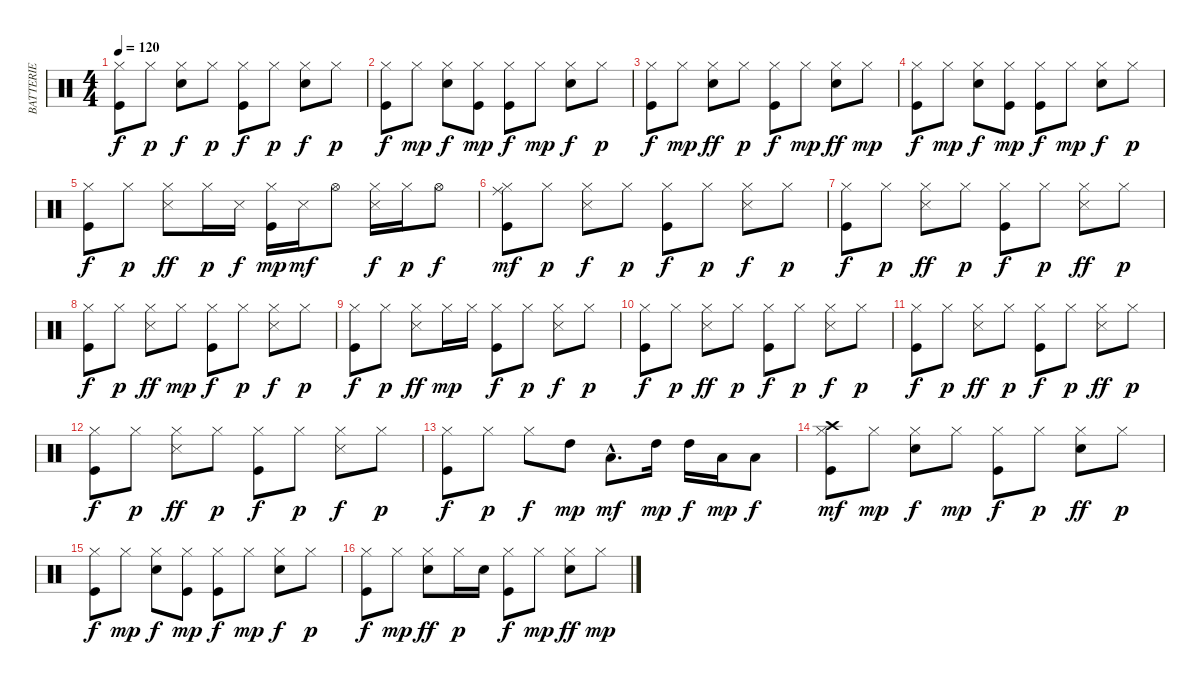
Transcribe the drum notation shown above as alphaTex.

\track ("BATTERIE" "BATTERIE") {instrument percussion}
\staff {score}
\articulation defaults
\ts (4 4)
\tempo 120
\clef neutral
\ks c
("Kick (hit)" "Hi-Hat (closed)").8{dy f} "Hi-Hat (closed)".8{dy p} ("Snare (hit) 2" "Hi-Hat (closed)").8{dy f} "Hi-Hat (closed)".8{dy p} ("Kick (hit)" "Hi-Hat (closed)").8{dy f} "Hi-Hat (closed)".8{dy p} ("Snare (hit) 2" "Hi-Hat (closed)").8{dy f} "Hi-Hat (closed)".8{dy p} |
("Kick (hit)" "Hi-Hat (closed)").8{dy f} "Hi-Hat (closed)".8{dy mp} ("Snare (hit) 2" "Hi-Hat (closed)").8{dy f} ("Kick (hit)" "Hi-Hat (closed)").8{dy mp} ("Kick (hit)" "Hi-Hat (closed)").8{dy f} "Hi-Hat (closed)".8{dy mp} ("Snare (hit) 2" "Hi-Hat (closed)").8{dy f} "Hi-Hat (closed)".8{dy p} |
("Kick (hit)" "Hi-Hat (closed)").8{dy f} "Hi-Hat (closed)".8{dy mp} ("Snare (hit) 2" "Hi-Hat (closed)").8{dy ff} "Hi-Hat (closed)".8{dy p} ("Kick (hit)" "Hi-Hat (closed)").8{dy f} "Hi-Hat (closed)".8{dy mp} ("Snare (hit) 2" "Hi-Hat (closed)").8{dy ff} "Hi-Hat (closed)".8{dy mp} |
("Kick (hit)" "Hi-Hat (closed)").8{dy f} "Hi-Hat (closed)".8{dy mp} ("Snare (hit) 2" "Hi-Hat (closed)").8{dy f} ("Kick (hit)" "Hi-Hat (closed)").8{dy mp} ("Kick (hit)" "Hi-Hat (closed)").8{dy f} "Hi-Hat (closed)".8{dy mp} ("Snare (hit) 2" "Hi-Hat (closed)").8{dy f} "Hi-Hat (closed)".8{dy p} |
("Kick (hit)" "Hi-Hat (closed)").8{dy f} "Hi-Hat (closed)".8{dy p} ("Hi-Hat (closed)" "Snare (side stick) 3").8{dy ff} "Hi-Hat (closed)".16{dy p} "Snare (side stick) 3".16{dy f} ("Kick (hit)" "Hi-Hat (closed)").16{dy mp} "Snare (side stick) 3".16{dy mf} "Hi-Hat (open)".8 ("Hi-Hat (closed)" "Snare (side stick) 3").16{dy f} "Hi-Hat (closed)".16{dy p} "Hi-Hat (open)".8{dy f} |
("Kick (hit)" "Hi-Hat (closed)" "Ride (middle)").8{dy mf} "Hi-Hat (closed)".8{dy p} ("Hi-Hat (closed)" "Snare (side stick) 3").8{dy f} "Hi-Hat (closed)".8{dy p} ("Kick (hit)" "Hi-Hat (closed)").8{dy f} "Hi-Hat (closed)".8{dy p} ("Hi-Hat (closed)" "Snare (side stick) 3").8{dy f} "Hi-Hat (closed)".8{dy p} |
("Kick (hit)" "Hi-Hat (closed)").8{dy f} "Hi-Hat (closed)".8{dy p} ("Hi-Hat (closed)" "Snare (side stick) 3").8{dy ff} "Hi-Hat (closed)".8{dy p} ("Kick (hit)" "Hi-Hat (closed)").8{dy f} "Hi-Hat (closed)".8{dy p} ("Hi-Hat (closed)" "Snare (side stick) 3").8{dy ff} "Hi-Hat (closed)".8{dy p} |
("Kick (hit)" "Hi-Hat (closed)").8{dy f} "Hi-Hat (closed)".8{dy p} ("Hi-Hat (closed)" "Snare (side stick) 3").8{dy ff} "Hi-Hat (closed)".8{dy mp} ("Kick (hit)" "Hi-Hat (closed)").8{dy f} "Hi-Hat (closed)".8{dy p} ("Hi-Hat (closed)" "Snare (side stick) 3").8{dy f} "Hi-Hat (closed)".8{dy p} |
("Kick (hit)" "Hi-Hat (closed)").8{dy f} "Hi-Hat (closed)".8{dy p} ("Hi-Hat (closed)" "Snare (side stick) 3").8{dy ff} "Hi-Hat (closed)".16{dy mp} "Hi-Hat (closed)".16 ("Kick (hit)" "Hi-Hat (closed)").8{dy f} "Hi-Hat (closed)".8{dy p} ("Hi-Hat (closed)" "Snare (side stick) 3").8{dy f} "Hi-Hat (closed)".8{dy p} |
("Kick (hit)" "Hi-Hat (closed)").8{dy f} "Hi-Hat (closed)".8{dy p} ("Hi-Hat (closed)" "Snare (side stick) 3").8{dy ff} "Hi-Hat (closed)".8{dy p} ("Kick (hit)" "Hi-Hat (closed)").8{dy f} "Hi-Hat (closed)".8{dy p} ("Hi-Hat (closed)" "Snare (side stick) 3").8{dy f} "Hi-Hat (closed)".8{dy p} |
("Kick (hit)" "Hi-Hat (closed)").8{dy f} "Hi-Hat (closed)".8{dy p} ("Hi-Hat (closed)" "Snare (side stick) 3").8{dy ff} "Hi-Hat (closed)".8{dy p} ("Kick (hit)" "Hi-Hat (closed)").8{dy f} "Hi-Hat (closed)".8{dy p} ("Hi-Hat (closed)" "Snare (side stick) 3").8{dy ff} "Hi-Hat (closed)".8{dy p} |
("Kick (hit)" "Hi-Hat (closed)").8{dy f} "Hi-Hat (closed)".8{dy p} ("Hi-Hat (closed)" "Snare (side stick) 3").8{dy ff} "Hi-Hat (closed)".8{dy p} ("Kick (hit)" "Hi-Hat (closed)").8{dy f} "Hi-Hat (closed)".8{dy p} ("Hi-Hat (closed)" "Snare (side stick) 3").8{dy f} "Hi-Hat (closed)".8{dy p} |
("Kick (hit)" "Hi-Hat (closed)").8{dy f} "Hi-Hat (closed)".8{dy p} "Hi-Hat (closed)".8{dy f} "High Tom (hit)".8{dy mp} "Low Tom (hit)"{hac}.8{d dy mf} "High Tom (hit)".16{dy mp} "High Tom (hit)".16{dy f} "Low Tom (hit)".16{dy mp} "Low Tom (hit)".8{dy f} |
("Kick (hit)" "Hi-Hat (closed)" "Crash high (hit)").8{dy mf} "Hi-Hat (closed)".8{dy mp} ("Snare (hit) 2" "Hi-Hat (closed)").8{dy f} "Hi-Hat (closed)".8{dy mp} ("Kick (hit)" "Hi-Hat (closed)").8{dy f} "Hi-Hat (closed)".8{dy p} ("Snare (hit) 2" "Hi-Hat (closed)").8{dy ff} "Hi-Hat (closed)".8{dy p} |
("Kick (hit)" "Hi-Hat (closed)").8{dy f} "Hi-Hat (closed)".8{dy mp} ("Snare (hit) 2" "Hi-Hat (closed)").8{dy f} ("Kick (hit)" "Hi-Hat (closed)").8{dy mp} ("Kick (hit)" "Hi-Hat (closed)").8{dy f} "Hi-Hat (closed)".8{dy mp} ("Snare (hit) 2" "Hi-Hat (closed)").8{dy f} "Hi-Hat (closed)".8{dy p} |
("Kick (hit)" "Hi-Hat (closed)").8{dy f} "Hi-Hat (closed)".8{dy mp} ("Snare (hit) 2" "Hi-Hat (closed)").8{dy ff} "Hi-Hat (closed)".16{dy p} "Snare (hit) 2".16 ("Kick (hit)" "Hi-Hat (closed)").8{dy f} "Hi-Hat (closed)".8{dy mp} ("Snare (hit) 2" "Hi-Hat (closed)").8{dy ff} "Hi-Hat (closed)".8{dy mp}
